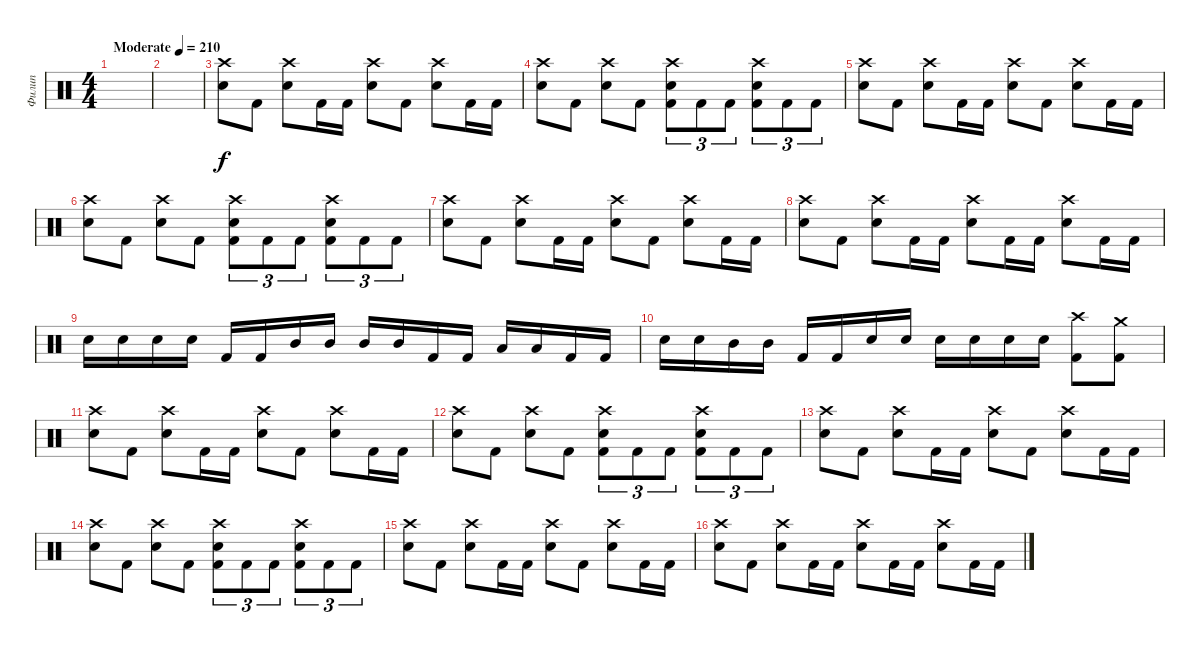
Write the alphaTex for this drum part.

\track ("Филип" "Филип") {instrument percussion}
\staff {score}
\articulation defaults
\ts (4 4)
\tempo (210 "Moderate")
\clef neutral
\ks c
|
|
("Crash high (hit)" "Electric Snare (hit)").8 "Kick (hit) 2".8 ("Crash high (hit)" "Electric Snare (hit)").8 "Kick (hit) 2".16 "Kick (hit) 2".16 ("Crash high (hit)" "Electric Snare (hit)").8 "Kick (hit) 2".8 ("Crash high (hit)" "Electric Snare (hit)").8 "Kick (hit) 2".16 "Kick (hit) 2".16 |
("Crash high (hit)" "Electric Snare (hit)").8 "Kick (hit) 2".8 ("Crash high (hit)" "Electric Snare (hit)").8 "Kick (hit) 2".8 ("Crash high (hit)" "Electric Snare (hit)" "Kick (hit) 2").8{tu (3 2)} "Kick (hit) 2".8{tu (3 2)} "Kick (hit) 2".8{tu (3 2)} ("Crash high (hit)" "Electric Snare (hit)" "Kick (hit) 2").8{tu (3 2)} "Kick (hit) 2".8{tu (3 2)} "Kick (hit) 2".8{tu (3 2)} |
("Crash high (hit)" "Electric Snare (hit)").8 "Kick (hit) 2".8 ("Crash high (hit)" "Electric Snare (hit)").8 "Kick (hit) 2".16 "Kick (hit) 2".16 ("Crash high (hit)" "Electric Snare (hit)").8 "Kick (hit) 2".8 ("Crash high (hit)" "Electric Snare (hit)").8 "Kick (hit) 2".16 "Kick (hit) 2".16 |
("Crash high (hit)" "Electric Snare (hit)").8 "Kick (hit) 2".8 ("Crash high (hit)" "Electric Snare (hit)").8 "Kick (hit) 2".8 ("Crash high (hit)" "Electric Snare (hit)" "Kick (hit) 2").8{tu (3 2)} "Kick (hit) 2".8{tu (3 2)} "Kick (hit) 2".8{tu (3 2)} ("Crash high (hit)" "Electric Snare (hit)" "Kick (hit) 2").8{tu (3 2)} "Kick (hit) 2".8{tu (3 2)} "Kick (hit) 2".8{tu (3 2)} |
("Crash high (hit)" "Electric Snare (hit)").8 "Kick (hit) 2".8 ("Crash high (hit)" "Electric Snare (hit)").8 "Kick (hit) 2".16 "Kick (hit) 2".16 ("Crash high (hit)" "Electric Snare (hit)").8 "Kick (hit) 2".8 ("Crash high (hit)" "Electric Snare (hit)").8 "Kick (hit) 2".16 "Kick (hit) 2".16 |
("Crash high (hit)" "Electric Snare (hit)").8 "Kick (hit) 2".8 ("Crash high (hit)" "Electric Snare (hit)").8 "Kick (hit) 2".16 "Kick (hit) 2".16 ("Crash high (hit)" "Electric Snare (hit)").8 "Kick (hit) 2".16 "Kick (hit) 2".16 ("Crash high (hit)" "Electric Snare (hit)").8 "Kick (hit) 2".16 "Kick (hit) 2".16 |
"Electric Snare (hit)".16 "Electric Snare (hit)".16 "Electric Snare (hit)".16 "Electric Snare (hit)".16 "Kick (hit) 2".16 "Kick (hit) 2".16 "Mid Tom (hit)".16 "Mid Tom (hit)".16 "Mid Tom (hit)".16 "Mid Tom (hit)".16 "Kick (hit) 2".16 "Kick (hit) 2".16 "Low Tom (hit)".16 "Low Tom (hit)".16 "Kick (hit) 2".16 "Kick (hit) 2".16 |
"Electric Snare (hit)".16 "Electric Snare (hit)".16 "Mid Tom (hit)".16 "Mid Tom (hit)".16 "Kick (hit) 2".16 "Kick (hit) 2".16 "Electric Snare (hit)".16 "Electric Snare (hit)".16 "Electric Snare (hit)".16 "Electric Snare (hit)".16 "Electric Snare (hit)".16 "Electric Snare (hit)".16 ("Crash high (hit)" "Kick (hit) 2").8 ("Crash medium (hit)" "Kick (hit) 2").8 |
("Crash high (hit)" "Electric Snare (hit)").8 "Kick (hit) 2".8 ("Crash high (hit)" "Electric Snare (hit)").8 "Kick (hit) 2".16 "Kick (hit) 2".16 ("Crash high (hit)" "Electric Snare (hit)").8 "Kick (hit) 2".8 ("Crash high (hit)" "Electric Snare (hit)").8 "Kick (hit) 2".16 "Kick (hit) 2".16 |
("Crash high (hit)" "Electric Snare (hit)").8 "Kick (hit) 2".8 ("Crash high (hit)" "Electric Snare (hit)").8 "Kick (hit) 2".8 ("Crash high (hit)" "Electric Snare (hit)" "Kick (hit) 2").8{tu (3 2)} "Kick (hit) 2".8{tu (3 2)} "Kick (hit) 2".8{tu (3 2)} ("Crash high (hit)" "Electric Snare (hit)" "Kick (hit) 2").8{tu (3 2)} "Kick (hit) 2".8{tu (3 2)} "Kick (hit) 2".8{tu (3 2)} |
("Crash high (hit)" "Electric Snare (hit)").8 "Kick (hit) 2".8 ("Crash high (hit)" "Electric Snare (hit)").8 "Kick (hit) 2".16 "Kick (hit) 2".16 ("Crash high (hit)" "Electric Snare (hit)").8 "Kick (hit) 2".8 ("Crash high (hit)" "Electric Snare (hit)").8 "Kick (hit) 2".16 "Kick (hit) 2".16 |
("Crash high (hit)" "Electric Snare (hit)").8 "Kick (hit) 2".8 ("Crash high (hit)" "Electric Snare (hit)").8 "Kick (hit) 2".8 ("Crash high (hit)" "Electric Snare (hit)" "Kick (hit) 2").8{tu (3 2)} "Kick (hit) 2".8{tu (3 2)} "Kick (hit) 2".8{tu (3 2)} ("Crash high (hit)" "Electric Snare (hit)" "Kick (hit) 2").8{tu (3 2)} "Kick (hit) 2".8{tu (3 2)} "Kick (hit) 2".8{tu (3 2)} |
("Crash high (hit)" "Electric Snare (hit)").8 "Kick (hit) 2".8 ("Crash high (hit)" "Electric Snare (hit)").8 "Kick (hit) 2".16 "Kick (hit) 2".16 ("Crash high (hit)" "Electric Snare (hit)").8 "Kick (hit) 2".8 ("Crash high (hit)" "Electric Snare (hit)").8 "Kick (hit) 2".16 "Kick (hit) 2".16 |
("Crash high (hit)" "Electric Snare (hit)").8 "Kick (hit) 2".8 ("Crash high (hit)" "Electric Snare (hit)").8 "Kick (hit) 2".16 "Kick (hit) 2".16 ("Crash high (hit)" "Electric Snare (hit)").8 "Kick (hit) 2".16 "Kick (hit) 2".16 ("Crash high (hit)" "Electric Snare (hit)").8 "Kick (hit) 2".16 "Kick (hit) 2".16
